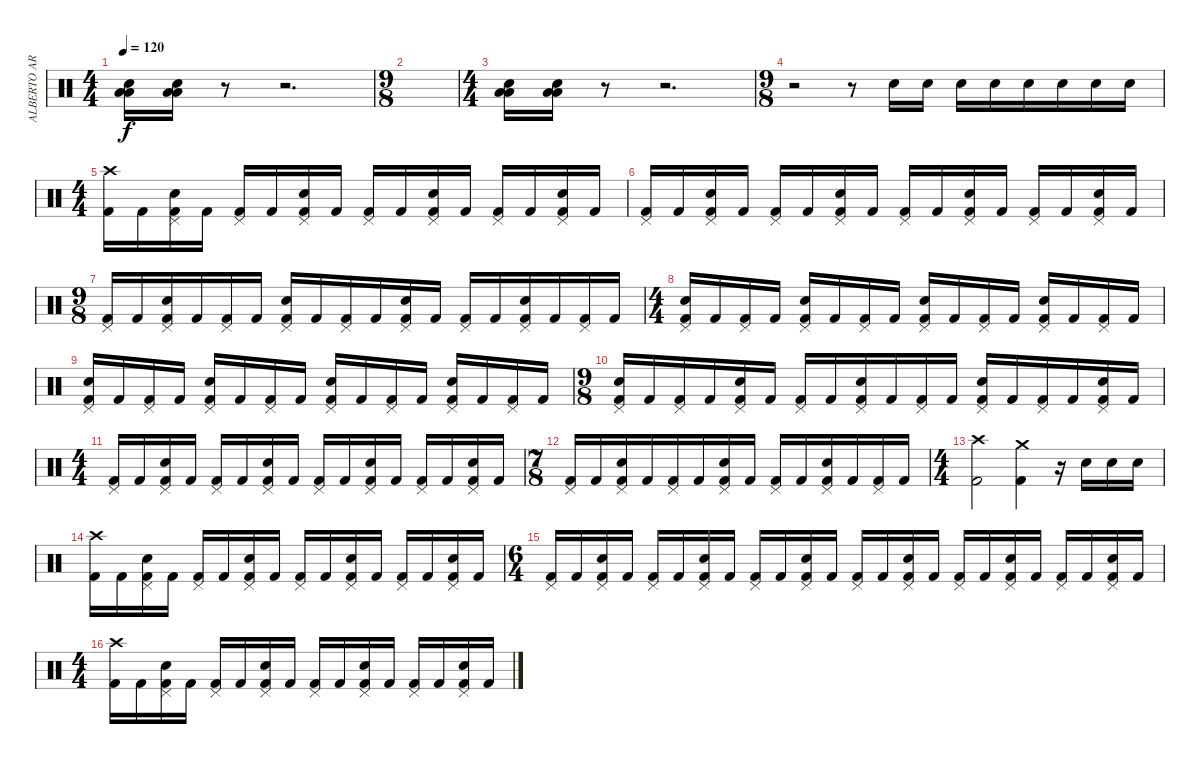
\track ("ALBERTO ARDINES" "ALBERTO AR") {instrument percussion}
\staff {score}
\articulation defaults
\ts (4 4)
\tempo 120
\clef neutral
\ks c
("Low Tom (hit)" "Low Floor Tom (hit)" "Electric Snare (hit)").16{dy f} ("Low Tom (hit)" "Low Floor Tom (hit)" "Electric Snare (hit)").16 r.8 r.2{d} |
\ts (9 8)
|
\ts (4 4)
("Low Tom (hit)" "Low Floor Tom (hit)" "Electric Snare (hit)").16 ("Low Tom (hit)" "Low Floor Tom (hit)" "Electric Snare (hit)").16 r.8 r.2{d} |
\ts (9 8)
r.2 r.8 "Electric Snare (hit)".16 "Electric Snare (hit)".16 "Electric Snare (hit)".16 "Electric Snare (hit)".16 "Electric Snare (hit)".16 "Electric Snare (hit)".16 "Electric Snare (hit)".16 "Electric Snare (hit)".16 |
\ts (4 4)
("Crash high (hit)" "Kick (hit) 2").16 "Kick (hit) 2".16 ("Pedal Hi-Hat (hit)" "Electric Snare (hit)" "Kick (hit) 2").16 "Kick (hit) 2".16 ("Pedal Hi-Hat (hit)" "Kick (hit) 2").16 "Kick (hit) 2".16 ("Pedal Hi-Hat (hit)" "Electric Snare (hit)" "Kick (hit) 2").16 "Kick (hit) 2".16 ("Pedal Hi-Hat (hit)" "Kick (hit) 2").16 "Kick (hit) 2".16 ("Pedal Hi-Hat (hit)" "Electric Snare (hit)" "Kick (hit) 2").16 "Kick (hit) 2".16 ("Pedal Hi-Hat (hit)" "Kick (hit) 2").16 "Kick (hit) 2".16 ("Pedal Hi-Hat (hit)" "Electric Snare (hit)" "Kick (hit) 2").16 "Kick (hit) 2".16 |
("Pedal Hi-Hat (hit)" "Kick (hit) 2").16 "Kick (hit) 2".16 ("Pedal Hi-Hat (hit)" "Electric Snare (hit)" "Kick (hit) 2").16 "Kick (hit) 2".16 ("Pedal Hi-Hat (hit)" "Kick (hit) 2").16 "Kick (hit) 2".16 ("Pedal Hi-Hat (hit)" "Electric Snare (hit)" "Kick (hit) 2").16 "Kick (hit) 2".16 ("Pedal Hi-Hat (hit)" "Kick (hit) 2").16 "Kick (hit) 2".16 ("Pedal Hi-Hat (hit)" "Electric Snare (hit)" "Kick (hit) 2").16 "Kick (hit) 2".16 ("Pedal Hi-Hat (hit)" "Kick (hit) 2").16 "Kick (hit) 2".16 ("Pedal Hi-Hat (hit)" "Electric Snare (hit)" "Kick (hit) 2").16 "Kick (hit) 2".16 |
\ts (9 8)
("Pedal Hi-Hat (hit)" "Kick (hit) 2").16 "Kick (hit) 2".16 ("Pedal Hi-Hat (hit)" "Electric Snare (hit)" "Kick (hit) 2").16 "Kick (hit) 2".16 ("Pedal Hi-Hat (hit)" "Kick (hit) 2").16 "Kick (hit) 2".16 ("Pedal Hi-Hat (hit)" "Electric Snare (hit)" "Kick (hit) 2").16 "Kick (hit) 2".16 ("Pedal Hi-Hat (hit)" "Kick (hit) 2").16 "Kick (hit) 2".16 ("Pedal Hi-Hat (hit)" "Electric Snare (hit)" "Kick (hit) 2").16 "Kick (hit) 2".16 ("Pedal Hi-Hat (hit)" "Kick (hit) 2").16 "Kick (hit) 2".16 ("Pedal Hi-Hat (hit)" "Electric Snare (hit)" "Kick (hit) 2").16 "Kick (hit) 2".16 ("Pedal Hi-Hat (hit)" "Kick (hit) 2").16 "Kick (hit) 2".16 |
\ts (4 4)
("Pedal Hi-Hat (hit)" "Electric Snare (hit)" "Kick (hit) 2").16 "Kick (hit) 2".16 ("Pedal Hi-Hat (hit)" "Kick (hit) 2").16 "Kick (hit) 2".16 ("Pedal Hi-Hat (hit)" "Electric Snare (hit)" "Kick (hit) 2").16 "Kick (hit) 2".16 ("Pedal Hi-Hat (hit)" "Kick (hit) 2").16 "Kick (hit) 2".16 ("Pedal Hi-Hat (hit)" "Electric Snare (hit)" "Kick (hit) 2").16 "Kick (hit) 2".16 ("Pedal Hi-Hat (hit)" "Kick (hit) 2").16 "Kick (hit) 2".16 ("Pedal Hi-Hat (hit)" "Electric Snare (hit)" "Kick (hit) 2").16 "Kick (hit) 2".16 ("Pedal Hi-Hat (hit)" "Kick (hit) 2").16 "Kick (hit) 2".16 |
("Pedal Hi-Hat (hit)" "Electric Snare (hit)" "Kick (hit) 2").16 "Kick (hit) 2".16 ("Pedal Hi-Hat (hit)" "Kick (hit) 2").16 "Kick (hit) 2".16 ("Pedal Hi-Hat (hit)" "Electric Snare (hit)" "Kick (hit) 2").16 "Kick (hit) 2".16 ("Pedal Hi-Hat (hit)" "Kick (hit) 2").16 "Kick (hit) 2".16 ("Pedal Hi-Hat (hit)" "Electric Snare (hit)" "Kick (hit) 2").16 "Kick (hit) 2".16 ("Pedal Hi-Hat (hit)" "Kick (hit) 2").16 "Kick (hit) 2".16 ("Pedal Hi-Hat (hit)" "Electric Snare (hit)" "Kick (hit) 2").16 "Kick (hit) 2".16 ("Pedal Hi-Hat (hit)" "Kick (hit) 2").16 "Kick (hit) 2".16 |
\ts (9 8)
("Pedal Hi-Hat (hit)" "Electric Snare (hit)" "Kick (hit) 2").16 "Kick (hit) 2".16 ("Pedal Hi-Hat (hit)" "Kick (hit) 2").16 "Kick (hit) 2".16 ("Pedal Hi-Hat (hit)" "Electric Snare (hit)" "Kick (hit) 2").16 "Kick (hit) 2".16 ("Pedal Hi-Hat (hit)" "Kick (hit) 2").16 "Kick (hit) 2".16 ("Pedal Hi-Hat (hit)" "Electric Snare (hit)" "Kick (hit) 2").16 "Kick (hit) 2".16 ("Pedal Hi-Hat (hit)" "Kick (hit) 2").16 "Kick (hit) 2".16 ("Pedal Hi-Hat (hit)" "Electric Snare (hit)" "Kick (hit) 2").16 "Kick (hit) 2".16 ("Pedal Hi-Hat (hit)" "Kick (hit) 2").16 "Kick (hit) 2".16 ("Pedal Hi-Hat (hit)" "Electric Snare (hit)" "Kick (hit) 2").16 "Kick (hit) 2".16 |
\ts (4 4)
("Pedal Hi-Hat (hit)" "Kick (hit) 2").16 "Kick (hit) 2".16 ("Pedal Hi-Hat (hit)" "Electric Snare (hit)" "Kick (hit) 2").16 "Kick (hit) 2".16 ("Pedal Hi-Hat (hit)" "Kick (hit) 2").16 "Kick (hit) 2".16 ("Pedal Hi-Hat (hit)" "Electric Snare (hit)" "Kick (hit) 2").16 "Kick (hit) 2".16 ("Pedal Hi-Hat (hit)" "Kick (hit) 2").16 "Kick (hit) 2".16 ("Pedal Hi-Hat (hit)" "Electric Snare (hit)" "Kick (hit) 2").16 "Kick (hit) 2".16 ("Pedal Hi-Hat (hit)" "Kick (hit) 2").16 "Kick (hit) 2".16 ("Pedal Hi-Hat (hit)" "Electric Snare (hit)" "Kick (hit) 2").16 "Kick (hit) 2".16 |
\ts (7 8)
("Pedal Hi-Hat (hit)" "Kick (hit) 2").16 "Kick (hit) 2".16 ("Pedal Hi-Hat (hit)" "Electric Snare (hit)" "Kick (hit) 2").16 "Kick (hit) 2".16 ("Pedal Hi-Hat (hit)" "Kick (hit) 2").16 "Kick (hit) 2".16 ("Pedal Hi-Hat (hit)" "Electric Snare (hit)" "Kick (hit) 2").16 "Kick (hit) 2".16 ("Pedal Hi-Hat (hit)" "Kick (hit) 2").16 "Kick (hit) 2".16 ("Pedal Hi-Hat (hit)" "Electric Snare (hit)" "Kick (hit) 2").16 "Kick (hit) 2".16 ("Pedal Hi-Hat (hit)" "Kick (hit) 2").16 "Kick (hit) 2".16 |
\ts (4 4)
("Crash high (hit)" "Kick (hit) 2").2 ("Crash medium (hit)" "Kick (hit) 2").4 r.16 "Electric Snare (hit)".16 "Electric Snare (hit)".16 "Electric Snare (hit)".16 |
("Crash high (hit)" "Kick (hit) 2").16 "Kick (hit) 2".16 ("Pedal Hi-Hat (hit)" "Electric Snare (hit)" "Kick (hit) 2").16 "Kick (hit) 2".16 ("Pedal Hi-Hat (hit)" "Kick (hit) 2").16 "Kick (hit) 2".16 ("Pedal Hi-Hat (hit)" "Electric Snare (hit)" "Kick (hit) 2").16 "Kick (hit) 2".16 ("Pedal Hi-Hat (hit)" "Kick (hit) 2").16 "Kick (hit) 2".16 ("Pedal Hi-Hat (hit)" "Electric Snare (hit)" "Kick (hit) 2").16 "Kick (hit) 2".16 ("Pedal Hi-Hat (hit)" "Kick (hit) 2").16 "Kick (hit) 2".16 ("Pedal Hi-Hat (hit)" "Electric Snare (hit)" "Kick (hit) 2").16 "Kick (hit) 2".16 |
\ts (6 4)
("Pedal Hi-Hat (hit)" "Kick (hit) 2").16 "Kick (hit) 2".16 ("Pedal Hi-Hat (hit)" "Electric Snare (hit)" "Kick (hit) 2").16 "Kick (hit) 2".16 ("Pedal Hi-Hat (hit)" "Kick (hit) 2").16 "Kick (hit) 2".16 ("Pedal Hi-Hat (hit)" "Electric Snare (hit)" "Kick (hit) 2").16 "Kick (hit) 2".16 ("Pedal Hi-Hat (hit)" "Kick (hit) 2").16 "Kick (hit) 2".16 ("Pedal Hi-Hat (hit)" "Electric Snare (hit)" "Kick (hit) 2").16 "Kick (hit) 2".16 ("Pedal Hi-Hat (hit)" "Kick (hit) 2").16 "Kick (hit) 2".16 ("Pedal Hi-Hat (hit)" "Electric Snare (hit)" "Kick (hit) 2").16 "Kick (hit) 2".16 ("Pedal Hi-Hat (hit)" "Kick (hit) 2").16 "Kick (hit) 2".16 ("Pedal Hi-Hat (hit)" "Electric Snare (hit)" "Kick (hit) 2").16 "Kick (hit) 2".16 ("Pedal Hi-Hat (hit)" "Kick (hit) 2").16 "Kick (hit) 2".16 ("Pedal Hi-Hat (hit)" "Electric Snare (hit)" "Kick (hit) 2").16 "Kick (hit) 2".16 |
\ts (4 4)
("Crash high (hit)" "Kick (hit) 2").16 "Kick (hit) 2".16 ("Pedal Hi-Hat (hit)" "Electric Snare (hit)" "Kick (hit) 2").16 "Kick (hit) 2".16 ("Pedal Hi-Hat (hit)" "Kick (hit) 2").16 "Kick (hit) 2".16 ("Pedal Hi-Hat (hit)" "Electric Snare (hit)" "Kick (hit) 2").16 "Kick (hit) 2".16 ("Pedal Hi-Hat (hit)" "Kick (hit) 2").16 "Kick (hit) 2".16 ("Pedal Hi-Hat (hit)" "Electric Snare (hit)" "Kick (hit) 2").16 "Kick (hit) 2".16 ("Pedal Hi-Hat (hit)" "Kick (hit) 2").16 "Kick (hit) 2".16 ("Pedal Hi-Hat (hit)" "Electric Snare (hit)" "Kick (hit) 2").16 "Kick (hit) 2".16
